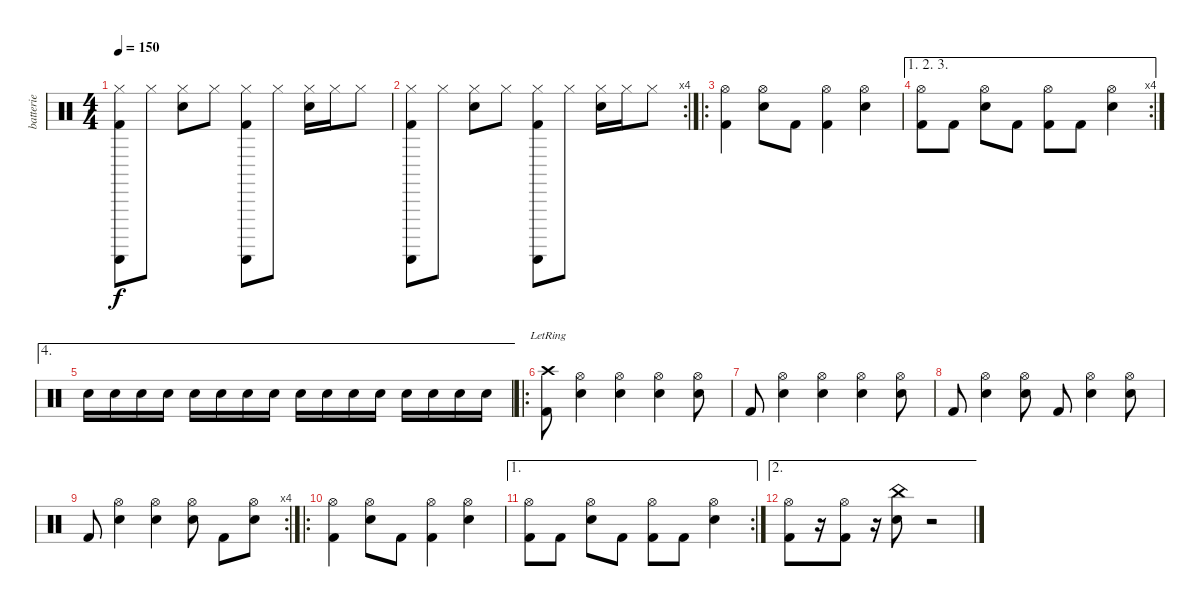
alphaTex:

\track ("batterie" "batterie") {instrument percussion}
\staff {score}
\articulation defaults
\ts (4 4)
\tempo 150
\clef neutral
\ks c
("Hi-Hat (closed)" "Guiro (scrap-return)" "Kick (hit) 2").8{dy f} "Hi-Hat (closed)".8 ("Hi-Hat (closed)" "Electric Snare (hit)").8 "Hi-Hat (closed)".8 ("Hi-Hat (closed)" "Guiro (scrap-return)" "Kick (hit) 2").8 "Hi-Hat (closed)".8 ("Hi-Hat (closed)" "Electric Snare (hit)").16 "Hi-Hat (closed)".16 "Hi-Hat (closed)".8 |
\rc 4
("Hi-Hat (closed)" "Guiro (scrap-return)" "Kick (hit) 2").8 "Hi-Hat (closed)".8 ("Hi-Hat (closed)" "Electric Snare (hit)").8 "Hi-Hat (closed)".8 ("Hi-Hat (closed)" "Guiro (scrap-return)" "Kick (hit) 2").8 "Hi-Hat (closed)".8 ("Hi-Hat (closed)" "Electric Snare (hit)").16 "Hi-Hat (closed)".16 "Hi-Hat (closed)".8 |
\ro
("Hi-Hat (open)" "Kick (hit) 2").4 ("Hi-Hat (open)" "Electric Snare (hit)").8 "Kick (hit) 2".8 ("Hi-Hat (open)" "Kick (hit) 2").4 ("Hi-Hat (open)" "Electric Snare (hit)").4 |
\ae (1 2 3)
\rc 4
("Hi-Hat (open)" "Kick (hit) 2").8 "Kick (hit) 2".8 ("Hi-Hat (open)" "Electric Snare (hit)").8 "Kick (hit) 2".8 ("Hi-Hat (open)" "Kick (hit) 2").8 "Kick (hit) 2".8 ("Hi-Hat (open)" "Electric Snare (hit)").4 |
\ae 4 "Electric Snare (hit)".16{volume 4} "Electric Snare (hit)".16{volume 12} "Electric Snare (hit)".16 "Electric Snare (hit)".16 "Electric Snare (hit)".16 "Electric Snare (hit)".16 "Electric Snare (hit)".16 "Electric Snare (hit)".16 "Electric Snare (hit)".16 "Electric Snare (hit)".16 "Electric Snare (hit)".16 "Electric Snare (hit)".16 "Electric Snare (hit)".16 "Electric Snare (hit)".16 "Electric Snare (hit)".16 "Electric Snare (hit)".16
|
\ro
("Crash high (hit)"{lr} "Kick (hit) 2").8 ("Hi-Hat (open)" "Electric Snare (hit)").4 ("Hi-Hat (open)" "Electric Snare (hit)").4 ("Hi-Hat (open)" "Electric Snare (hit)").4 ("Hi-Hat (open)" "Electric Snare (hit)").8 |
"Kick (hit) 2".8 ("Hi-Hat (open)" "Electric Snare (hit)").4 ("Hi-Hat (open)" "Electric Snare (hit)").4 ("Hi-Hat (open)" "Electric Snare (hit)").4 ("Hi-Hat (open)" "Electric Snare (hit)").8 |
"Kick (hit) 2".8 ("Hi-Hat (open)" "Electric Snare (hit)").4 ("Hi-Hat (open)" "Electric Snare (hit)").8 "Kick (hit) 2".8 ("Hi-Hat (open)" "Electric Snare (hit)").4 ("Hi-Hat (open)" "Electric Snare (hit)").8 |
\rc 4 "Kick (hit) 2".8
("Hi-Hat (open)" "Electric Snare (hit)").4 ("Hi-Hat (open)" "Electric Snare (hit)").4 ("Hi-Hat (open)" "Electric Snare (hit)").8 "Kick (hit) 2".8 ("Hi-Hat (open)" "Electric Snare (hit)").8 |
\ro
("Hi-Hat (open)" "Kick (hit) 2").4 ("Hi-Hat (open)" "Electric Snare (hit)").8 "Kick (hit) 2".8 ("Hi-Hat (open)" "Kick (hit) 2").4 ("Hi-Hat (open)" "Electric Snare (hit)").4 |
\ae 1
\rc 2
("Hi-Hat (open)" "Kick (hit) 2").8 "Kick (hit) 2".8 ("Hi-Hat (open)" "Electric Snare (hit)").8 "Kick (hit) 2".8 ("Hi-Hat (open)" "Kick (hit) 2").8 "Kick (hit) 2".8 ("Hi-Hat (open)" "Electric Snare (hit)").4 |
\ae 2
("Hi-Hat (open)" "Kick (hit) 2").8 r.16 ("Hi-Hat (open)" "Kick (hit) 2").8 r.16 ("China (hit)" "Electric Snare (hit)").8{volume 0} r.2
